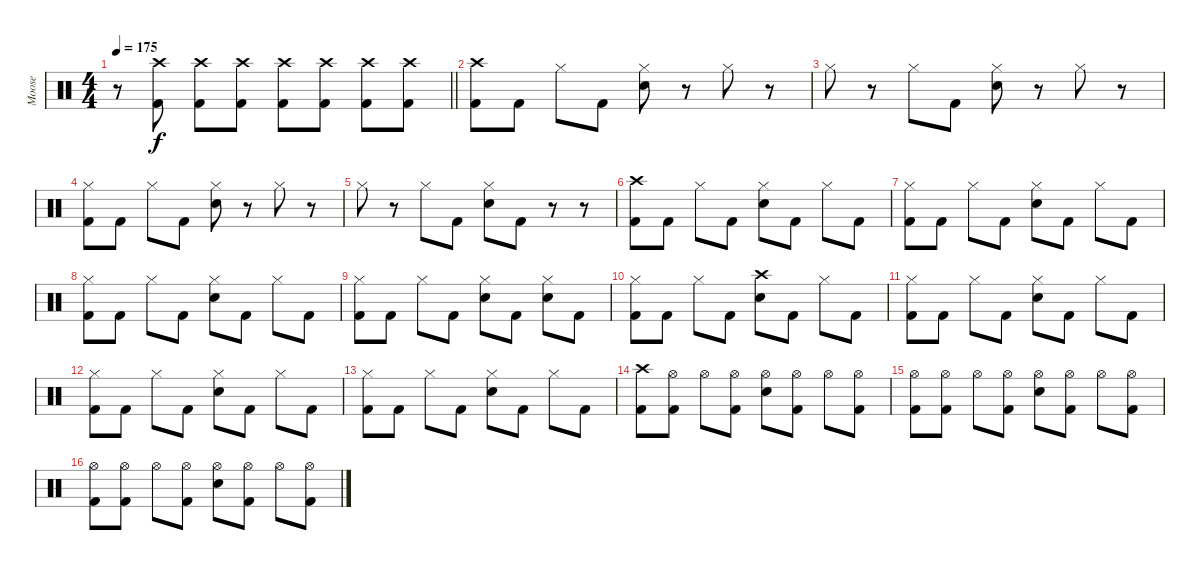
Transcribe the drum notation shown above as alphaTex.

\track ("Moose" "Moose") {instrument percussion}
\staff {score}
\articulation defaults
\ts (4 4)
\tempo 175
\clef neutral
\barLineRight lightlight
\ks c
r.8{dy fff} ("Crash high (hit)" "Kick (hit) 2").8{dy f} ("Crash high (hit)" "Kick (hit) 2").8 ("Crash high (hit)" "Kick (hit) 2").8 ("Crash high (hit)" "Kick (hit) 2").8 ("Crash high (hit)" "Kick (hit) 2").8 ("Crash high (hit)" "Kick (hit) 2").8 ("Crash high (hit)" "Kick (hit) 2").8 |
("Crash high (hit)" "Kick (hit) 2").8 "Kick (hit) 2".8 "Hi-Hat (closed)".8 "Kick (hit) 2".8 ("Hi-Hat (closed)" "Electric Snare (hit)").8 r.8 "Hi-Hat (closed)".8 r.8 |
"Hi-Hat (closed)".8 r.8 "Hi-Hat (closed)".8 "Kick (hit) 2".8 ("Hi-Hat (closed)" "Electric Snare (hit)").8 r.8 "Hi-Hat (closed)".8 r.8 |
("Hi-Hat (closed)" "Kick (hit) 2").8 "Kick (hit) 2".8 "Hi-Hat (closed)".8 "Kick (hit) 2".8 ("Hi-Hat (closed)" "Electric Snare (hit)").8 r.8 "Hi-Hat (closed)".8 r.8 |
"Hi-Hat (closed)".8 r.8 "Hi-Hat (closed)".8 "Kick (hit) 2".8 ("Hi-Hat (closed)" "Electric Snare (hit)").8 "Kick (hit) 2".8 r.8 r.8 |
("Crash high (hit)" "Kick (hit) 2").8 "Kick (hit) 2".8 "Hi-Hat (closed)".8 "Kick (hit) 2".8 ("Hi-Hat (closed)" "Electric Snare (hit)").8 "Kick (hit) 2".8 "Hi-Hat (closed)".8 "Kick (hit) 2".8 |
("Hi-Hat (closed)" "Kick (hit) 2").8 "Kick (hit) 2".8 "Hi-Hat (closed)".8 "Kick (hit) 2".8 ("Hi-Hat (closed)" "Electric Snare (hit)").8 "Kick (hit) 2".8 "Hi-Hat (closed)".8 "Kick (hit) 2".8 |
("Hi-Hat (closed)" "Kick (hit) 2").8 "Kick (hit) 2".8 "Hi-Hat (closed)".8 "Kick (hit) 2".8 ("Hi-Hat (closed)" "Electric Snare (hit)").8 "Kick (hit) 2".8 "Hi-Hat (closed)".8 "Kick (hit) 2".8 |
("Hi-Hat (closed)" "Kick (hit) 2").8 "Kick (hit) 2".8 "Hi-Hat (closed)".8 "Kick (hit) 2".8 ("Hi-Hat (closed)" "Electric Snare (hit)").8 "Kick (hit) 2".8 ("Hi-Hat (closed)" "Electric Snare (hit)").8 "Kick (hit) 2".8 |
("Hi-Hat (closed)" "Kick (hit) 2").8 "Kick (hit) 2".8 "Hi-Hat (closed)".8 "Kick (hit) 2".8 ("Crash high (hit)" "Electric Snare (hit)").8 "Kick (hit) 2".8 "Hi-Hat (closed)".8 "Kick (hit) 2".8 |
("Hi-Hat (closed)" "Kick (hit) 2").8 "Kick (hit) 2".8 "Hi-Hat (closed)".8 "Kick (hit) 2".8 ("Hi-Hat (closed)" "Electric Snare (hit)").8 "Kick (hit) 2".8 "Hi-Hat (closed)".8 "Kick (hit) 2".8 |
("Hi-Hat (closed)" "Kick (hit) 2").8 "Kick (hit) 2".8 "Hi-Hat (closed)".8 "Kick (hit) 2".8 ("Hi-Hat (closed)" "Electric Snare (hit)").8 "Kick (hit) 2".8 "Hi-Hat (closed)".8 "Kick (hit) 2".8 |
("Hi-Hat (closed)" "Kick (hit) 2").8 "Kick (hit) 2".8 "Hi-Hat (closed)".8 "Kick (hit) 2".8 ("Hi-Hat (closed)" "Electric Snare (hit)").8 "Kick (hit) 2".8 "Hi-Hat (closed)".8 "Kick (hit) 2".8 |
("Crash high (hit)" "Kick (hit) 2").8 ("Hi-Hat (open)" "Kick (hit) 2").8 "Hi-Hat (open)".8 ("Hi-Hat (open)" "Kick (hit) 2").8 ("Hi-Hat (open)" "Electric Snare (hit)").8 ("Hi-Hat (open)" "Kick (hit) 2").8 "Hi-Hat (open)".8 ("Hi-Hat (open)" "Kick (hit) 2").8 |
("Hi-Hat (open)" "Kick (hit) 2").8 ("Hi-Hat (open)" "Kick (hit) 2").8 "Hi-Hat (open)".8 ("Hi-Hat (open)" "Kick (hit) 2").8 ("Hi-Hat (open)" "Electric Snare (hit)").8 ("Hi-Hat (open)" "Kick (hit) 2").8 "Hi-Hat (open)".8 ("Hi-Hat (open)" "Kick (hit) 2").8 |
("Hi-Hat (open)" "Kick (hit) 2").8 ("Hi-Hat (open)" "Kick (hit) 2").8 "Hi-Hat (open)".8 ("Hi-Hat (open)" "Kick (hit) 2").8 ("Hi-Hat (open)" "Electric Snare (hit)").8 ("Hi-Hat (open)" "Kick (hit) 2").8 "Hi-Hat (open)".8 ("Hi-Hat (open)" "Kick (hit) 2").8
